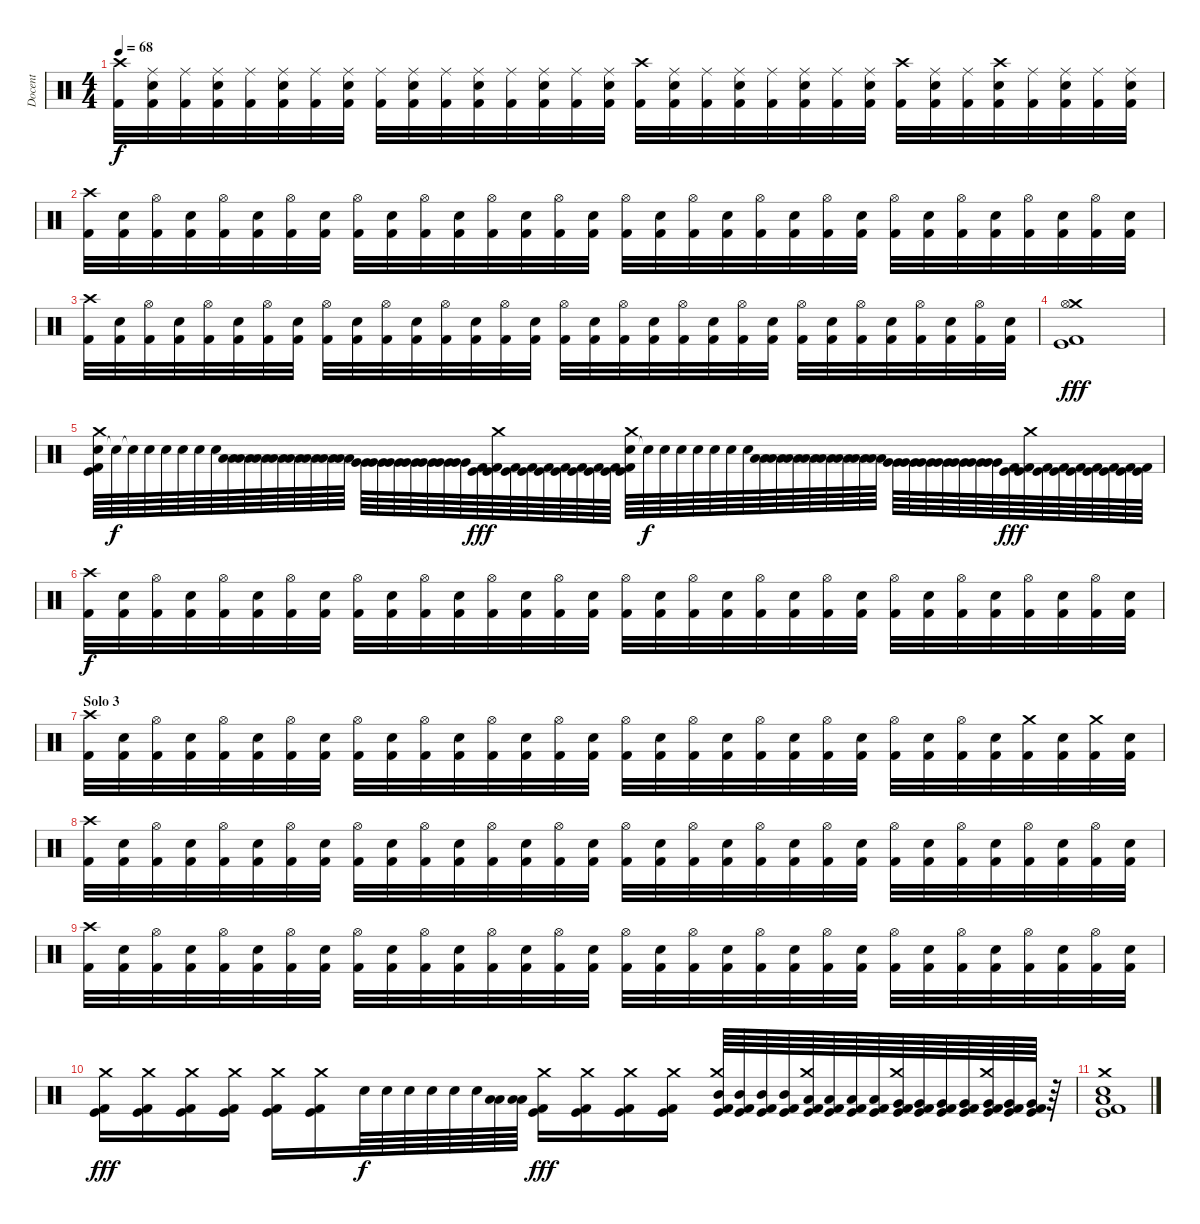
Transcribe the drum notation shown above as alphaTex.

\track ("Docent" "Docent") {instrument percussion}
\staff {score}
\articulation defaults
\ts (4 4)
\tempo 68
\clef neutral
\ks c
("Crash high (hit)" "Kick (hit) 2").32{dy f} ("Ride (middle)" "Electric Snare (hit)" "Kick (hit) 2").32 ("Ride (middle)" "Kick (hit) 2").32 ("Ride (middle)" "Electric Snare (hit)" "Kick (hit) 2").32 ("Ride (middle)" "Kick (hit) 2").32 ("Ride (middle)" "Electric Snare (hit)" "Kick (hit) 2").32 ("Ride (middle)" "Kick (hit) 2").32 ("Ride (middle)" "Electric Snare (hit)" "Kick (hit) 2").32 ("Ride (middle)" "Kick (hit) 2").32 ("Ride (middle)" "Electric Snare (hit)" "Kick (hit) 2").32 ("Ride (middle)" "Kick (hit) 2").32 ("Ride (middle)" "Electric Snare (hit)" "Kick (hit) 2").32 ("Ride (middle)" "Kick (hit) 2").32 ("Ride (middle)" "Electric Snare (hit)" "Kick (hit) 2").32 ("Ride (middle)" "Kick (hit) 2").32 ("Ride (middle)" "Electric Snare (hit)" "Kick (hit) 2").32 ("Crash high (hit)" "Kick (hit) 2").32 ("Ride (middle)" "Electric Snare (hit)" "Kick (hit) 2").32 ("Ride (middle)" "Kick (hit) 2").32 ("Ride (middle)" "Electric Snare (hit)" "Kick (hit) 2").32 ("Ride (middle)" "Kick (hit) 2").32 ("Ride (middle)" "Electric Snare (hit)" "Kick (hit) 2").32 ("Ride (middle)" "Kick (hit) 2").32 ("Ride (middle)" "Electric Snare (hit)" "Kick (hit) 2").32 ("Crash high (hit)" "Kick (hit) 2").32 ("Ride (middle)" "Electric Snare (hit)" "Kick (hit) 2").32 ("Ride (middle)" "Kick (hit) 2").32 ("Crash high (hit)" "Electric Snare (hit)" "Kick (hit) 2").32 ("Ride (middle)" "Kick (hit) 2").32 ("Ride (middle)" "Electric Snare (hit)" "Kick (hit) 2").32 ("Ride (middle)" "Kick (hit) 2").32 ("Ride (middle)" "Electric Snare (hit)" "Kick (hit) 2").32 |
("Crash high (hit)" "Kick (hit) 2").32 ("Electric Snare (hit)" "Kick (hit) 2").32 ("Hi-Hat (open)" "Kick (hit) 2").32 ("Electric Snare (hit)" "Kick (hit) 2").32 ("Hi-Hat (open)" "Kick (hit) 2").32 ("Electric Snare (hit)" "Kick (hit) 2").32 ("Hi-Hat (open)" "Kick (hit) 2").32 ("Electric Snare (hit)" "Kick (hit) 2").32 ("Hi-Hat (open)" "Kick (hit) 2").32 ("Electric Snare (hit)" "Kick (hit) 2").32 ("Hi-Hat (open)" "Kick (hit) 2").32 ("Electric Snare (hit)" "Kick (hit) 2").32 ("Hi-Hat (open)" "Kick (hit) 2").32 ("Electric Snare (hit)" "Kick (hit) 2").32 ("Hi-Hat (open)" "Kick (hit) 2").32 ("Electric Snare (hit)" "Kick (hit) 2").32 ("Hi-Hat (open)" "Kick (hit) 2").32 ("Electric Snare (hit)" "Kick (hit) 2").32 ("Hi-Hat (open)" "Kick (hit) 2").32 ("Electric Snare (hit)" "Kick (hit) 2").32 ("Hi-Hat (open)" "Kick (hit) 2").32 ("Electric Snare (hit)" "Kick (hit) 2").32 ("Hi-Hat (open)" "Kick (hit) 2").32 ("Electric Snare (hit)" "Kick (hit) 2").32 ("Hi-Hat (open)" "Kick (hit) 2").32 ("Electric Snare (hit)" "Kick (hit) 2").32 ("Hi-Hat (open)" "Kick (hit) 2").32 ("Electric Snare (hit)" "Kick (hit) 2").32 ("Hi-Hat (open)" "Kick (hit) 2").32 ("Electric Snare (hit)" "Kick (hit) 2").32 ("Hi-Hat (open)" "Kick (hit) 2").32 ("Electric Snare (hit)" "Kick (hit) 2").32 |
("Crash high (hit)" "Kick (hit) 2").32 ("Electric Snare (hit)" "Kick (hit) 2").32 ("Hi-Hat (open)" "Kick (hit) 2").32 ("Electric Snare (hit)" "Kick (hit) 2").32 ("Hi-Hat (open)" "Kick (hit) 2").32 ("Electric Snare (hit)" "Kick (hit) 2").32 ("Hi-Hat (open)" "Kick (hit) 2").32 ("Electric Snare (hit)" "Kick (hit) 2").32 ("Hi-Hat (open)" "Kick (hit) 2").32 ("Electric Snare (hit)" "Kick (hit) 2").32 ("Hi-Hat (open)" "Kick (hit) 2").32 ("Electric Snare (hit)" "Kick (hit) 2").32 ("Hi-Hat (open)" "Kick (hit) 2").32 ("Electric Snare (hit)" "Kick (hit) 2").32 ("Hi-Hat (open)" "Kick (hit) 2").32 ("Electric Snare (hit)" "Kick (hit) 2").32 ("Hi-Hat (open)" "Kick (hit) 2").32 ("Electric Snare (hit)" "Kick (hit) 2").32 ("Hi-Hat (open)" "Kick (hit) 2").32 ("Electric Snare (hit)" "Kick (hit) 2").32 ("Hi-Hat (open)" "Kick (hit) 2").32 ("Electric Snare (hit)" "Kick (hit) 2").32 ("Hi-Hat (open)" "Kick (hit) 2").32 ("Electric Snare (hit)" "Kick (hit) 2").32 ("Hi-Hat (open)" "Kick (hit) 2").32 ("Electric Snare (hit)" "Kick (hit) 2").32 ("Hi-Hat (open)" "Kick (hit) 2").32 ("Electric Snare (hit)" "Kick (hit) 2").32 ("Hi-Hat (open)" "Kick (hit) 2").32 ("Electric Snare (hit)" "Kick (hit) 2").32 ("Hi-Hat (open)" "Kick (hit) 2").32 ("Electric Snare (hit)" "Kick (hit) 2").32 |
("Kick (hit) 2" "Kick (hit)" "Crash medium (hit)" "Hi-Hat (open)").1{dy fff} |
("Electric Snare (hit)" "Kick (hit)" "Kick (hit) 2" "Crash medium (hit)").64 "Electric Snare (hit)"{t}.64{dy f} "Electric Snare (hit)"{t}.64 "Electric Snare (hit)".64 "Electric Snare (hit)".64 "Electric Snare (hit)".64 "Electric Snare (hit)".64 "Electric Snare (hit)".64 ("Low Tom (hit)" "Low Tom (hit)").64 ("Low Tom (hit)" "Low Tom (hit)").64 ("Low Tom (hit)" "Low Tom (hit)").64 ("Low Tom (hit)" "Low Tom (hit)").64 ("Low Tom (hit)" "Low Tom (hit)").64 ("Low Tom (hit)" "Low Tom (hit)").64 ("Low Tom (hit)" "Low Tom (hit)").64 ("Low Tom (hit)" "Low Tom (hit)").64 ("Very Low Tom (hit)" "Very Low Tom (hit)").64 ("Very Low Tom (hit)" "Very Low Tom (hit)").64 ("Very Low Tom (hit)" "Very Low Tom (hit)").64 ("Very Low Tom (hit)" "Very Low Tom (hit)").64 ("Very Low Tom (hit)" "Very Low Tom (hit)").64 ("Very Low Tom (hit)" "Very Low Tom (hit)").64 ("Very Low Tom (hit)" "Very Low Tom (hit)").64 ("Kick (hit) 2" "Kick (hit)").64{dy fff} ("Kick (hit) 2" "Kick (hit)" "Crash medium (hit)").64 ("Kick (hit) 2" "Kick (hit)").64 ("Kick (hit) 2" "Kick (hit)").64 ("Kick (hit) 2" "Kick (hit)").64 ("Kick (hit) 2" "Kick (hit)").64 ("Kick (hit) 2" "Kick (hit)").64 ("Kick (hit) 2" "Kick (hit)").64 ("Kick (hit) 2" "Kick (hit)").64 ("Electric Snare (hit)" "Kick (hit)" "Kick (hit) 2" "Crash medium (hit)").64 "Electric Snare (hit)"{t}.64{dy f} "Electric Snare (hit)".64 "Electric Snare (hit)".64 "Electric Snare (hit)".64 "Electric Snare (hit)".64 "Electric Snare (hit)".64 "Electric Snare (hit)".64 ("Low Tom (hit)" "Low Tom (hit)").64 ("Low Tom (hit)" "Low Tom (hit)").64 ("Low Tom (hit)" "Low Tom (hit)").64 ("Low Tom (hit)" "Low Tom (hit)").64 ("Low Tom (hit)" "Low Tom (hit)").64 ("Low Tom (hit)" "Low Tom (hit)").64 ("Low Tom (hit)" "Low Tom (hit)").64 ("Low Tom (hit)" "Low Tom (hit)").64 ("Very Low Tom (hit)" "Very Low Tom (hit)").64 ("Very Low Tom (hit)" "Very Low Tom (hit)").64 ("Very Low Tom (hit)" "Very Low Tom (hit)").64 ("Very Low Tom (hit)" "Very Low Tom (hit)").64 ("Very Low Tom (hit)" "Very Low Tom (hit)").64 ("Very Low Tom (hit)" "Very Low Tom (hit)").64 ("Very Low Tom (hit)" "Very Low Tom (hit)").64 ("Kick (hit) 2" "Kick (hit)").64{dy fff} ("Kick (hit) 2" "Kick (hit)" "Crash medium (hit)").64 ("Kick (hit) 2" "Kick (hit)").64 ("Kick (hit) 2" "Kick (hit)").64 ("Kick (hit) 2" "Kick (hit)").64 ("Kick (hit) 2" "Kick (hit)").64 ("Kick (hit) 2" "Kick (hit)").64 ("Kick (hit) 2" "Kick (hit)").64 ("Kick (hit) 2" "Kick (hit)").64 |
("Crash high (hit)" "Kick (hit) 2").32{dy f} ("Electric Snare (hit)" "Kick (hit) 2").32 ("Hi-Hat (open)" "Kick (hit) 2").32 ("Electric Snare (hit)" "Kick (hit) 2").32 ("Hi-Hat (open)" "Kick (hit) 2").32 ("Electric Snare (hit)" "Kick (hit) 2").32 ("Hi-Hat (open)" "Kick (hit) 2").32 ("Electric Snare (hit)" "Kick (hit) 2").32 ("Hi-Hat (open)" "Kick (hit) 2").32 ("Electric Snare (hit)" "Kick (hit) 2").32 ("Hi-Hat (open)" "Kick (hit) 2").32 ("Electric Snare (hit)" "Kick (hit) 2").32 ("Hi-Hat (open)" "Kick (hit) 2").32 ("Electric Snare (hit)" "Kick (hit) 2").32 ("Hi-Hat (open)" "Kick (hit) 2").32 ("Electric Snare (hit)" "Kick (hit) 2").32 ("Hi-Hat (open)" "Kick (hit) 2").32 ("Electric Snare (hit)" "Kick (hit) 2").32 ("Hi-Hat (open)" "Kick (hit) 2").32 ("Electric Snare (hit)" "Kick (hit) 2").32 ("Hi-Hat (open)" "Kick (hit) 2").32 ("Electric Snare (hit)" "Kick (hit) 2").32 ("Hi-Hat (open)" "Kick (hit) 2").32 ("Electric Snare (hit)" "Kick (hit) 2").32 ("Hi-Hat (open)" "Kick (hit) 2").32 ("Electric Snare (hit)" "Kick (hit) 2").32 ("Hi-Hat (open)" "Kick (hit) 2").32 ("Electric Snare (hit)" "Kick (hit) 2").32 ("Hi-Hat (open)" "Kick (hit) 2").32 ("Electric Snare (hit)" "Kick (hit) 2").32 ("Hi-Hat (open)" "Kick (hit) 2").32 ("Electric Snare (hit)" "Kick (hit) 2").32 |
\section ("" "Solo 3")
("Crash high (hit)" "Kick (hit) 2").32 ("Electric Snare (hit)" "Kick (hit) 2").32 ("Hi-Hat (open)" "Kick (hit) 2").32 ("Electric Snare (hit)" "Kick (hit) 2").32 ("Hi-Hat (open)" "Kick (hit) 2").32 ("Electric Snare (hit)" "Kick (hit) 2").32 ("Hi-Hat (open)" "Kick (hit) 2").32 ("Electric Snare (hit)" "Kick (hit) 2").32 ("Hi-Hat (open)" "Kick (hit) 2").32 ("Electric Snare (hit)" "Kick (hit) 2").32 ("Hi-Hat (open)" "Kick (hit) 2").32 ("Electric Snare (hit)" "Kick (hit) 2").32 ("Hi-Hat (open)" "Kick (hit) 2").32 ("Electric Snare (hit)" "Kick (hit) 2").32 ("Hi-Hat (open)" "Kick (hit) 2").32 ("Electric Snare (hit)" "Kick (hit) 2").32 ("Hi-Hat (open)" "Kick (hit) 2").32 ("Electric Snare (hit)" "Kick (hit) 2").32 ("Hi-Hat (open)" "Kick (hit) 2").32 ("Electric Snare (hit)" "Kick (hit) 2").32 ("Hi-Hat (open)" "Kick (hit) 2").32 ("Electric Snare (hit)" "Kick (hit) 2").32 ("Hi-Hat (open)" "Kick (hit) 2").32 ("Electric Snare (hit)" "Kick (hit) 2").32 ("Hi-Hat (open)" "Kick (hit) 2").32 ("Electric Snare (hit)" "Kick (hit) 2").32 ("Hi-Hat (open)" "Kick (hit) 2").32 ("Electric Snare (hit)" "Kick (hit) 2").32 ("Crash medium (hit)" "Kick (hit) 2").32 ("Electric Snare (hit)" "Kick (hit) 2").32 ("Crash medium (hit)" "Kick (hit) 2").32 ("Electric Snare (hit)" "Kick (hit) 2").32 |
("Crash high (hit)" "Kick (hit) 2").32 ("Electric Snare (hit)" "Kick (hit) 2").32 ("Hi-Hat (open)" "Kick (hit) 2").32 ("Electric Snare (hit)" "Kick (hit) 2").32 ("Hi-Hat (open)" "Kick (hit) 2").32 ("Electric Snare (hit)" "Kick (hit) 2").32 ("Hi-Hat (open)" "Kick (hit) 2").32 ("Electric Snare (hit)" "Kick (hit) 2").32 ("Hi-Hat (open)" "Kick (hit) 2").32 ("Electric Snare (hit)" "Kick (hit) 2").32 ("Hi-Hat (open)" "Kick (hit) 2").32 ("Electric Snare (hit)" "Kick (hit) 2").32 ("Hi-Hat (open)" "Kick (hit) 2").32 ("Electric Snare (hit)" "Kick (hit) 2").32 ("Hi-Hat (open)" "Kick (hit) 2").32 ("Electric Snare (hit)" "Kick (hit) 2").32 ("Hi-Hat (open)" "Kick (hit) 2").32 ("Electric Snare (hit)" "Kick (hit) 2").32 ("Hi-Hat (open)" "Kick (hit) 2").32 ("Electric Snare (hit)" "Kick (hit) 2").32 ("Hi-Hat (open)" "Kick (hit) 2").32 ("Electric Snare (hit)" "Kick (hit) 2").32 ("Hi-Hat (open)" "Kick (hit) 2").32 ("Electric Snare (hit)" "Kick (hit) 2").32 ("Hi-Hat (open)" "Kick (hit) 2").32 ("Electric Snare (hit)" "Kick (hit) 2").32 ("Hi-Hat (open)" "Kick (hit) 2").32 ("Electric Snare (hit)" "Kick (hit) 2").32 ("Hi-Hat (open)" "Kick (hit) 2").32 ("Electric Snare (hit)" "Kick (hit) 2").32 ("Hi-Hat (open)" "Kick (hit) 2").32 ("Electric Snare (hit)" "Kick (hit) 2").32 |
("Crash high (hit)" "Kick (hit) 2").32 ("Electric Snare (hit)" "Kick (hit) 2").32 ("Hi-Hat (open)" "Kick (hit) 2").32 ("Electric Snare (hit)" "Kick (hit) 2").32 ("Hi-Hat (open)" "Kick (hit) 2").32 ("Electric Snare (hit)" "Kick (hit) 2").32 ("Hi-Hat (open)" "Kick (hit) 2").32 ("Electric Snare (hit)" "Kick (hit) 2").32 ("Hi-Hat (open)" "Kick (hit) 2").32 ("Electric Snare (hit)" "Kick (hit) 2").32 ("Hi-Hat (open)" "Kick (hit) 2").32 ("Electric Snare (hit)" "Kick (hit) 2").32 ("Hi-Hat (open)" "Kick (hit) 2").32 ("Electric Snare (hit)" "Kick (hit) 2").32 ("Hi-Hat (open)" "Kick (hit) 2").32 ("Electric Snare (hit)" "Kick (hit) 2").32 ("Hi-Hat (open)" "Kick (hit) 2").32 ("Electric Snare (hit)" "Kick (hit) 2").32 ("Hi-Hat (open)" "Kick (hit) 2").32 ("Electric Snare (hit)" "Kick (hit) 2").32 ("Hi-Hat (open)" "Kick (hit) 2").32 ("Electric Snare (hit)" "Kick (hit) 2").32 ("Hi-Hat (open)" "Kick (hit) 2").32 ("Electric Snare (hit)" "Kick (hit) 2").32 ("Hi-Hat (open)" "Kick (hit) 2").32 ("Electric Snare (hit)" "Kick (hit) 2").32 ("Hi-Hat (open)" "Kick (hit) 2").32 ("Electric Snare (hit)" "Kick (hit) 2").32 ("Hi-Hat (open)" "Kick (hit) 2").32 ("Electric Snare (hit)" "Kick (hit) 2").32 ("Hi-Hat (open)" "Kick (hit) 2").32 ("Electric Snare (hit)" "Kick (hit) 2").32 |
("Crash medium (hit)" "Kick (hit)" "Kick (hit) 2").16{dy fff} ("Crash medium (hit)" "Kick (hit)" "Kick (hit) 2").16 ("Crash medium (hit)" "Kick (hit)" "Kick (hit) 2").16 ("Crash medium (hit)" "Kick (hit)" "Kick (hit) 2").16 ("Crash medium (hit)" "Kick (hit)" "Kick (hit) 2").16 ("Crash medium (hit)" "Kick (hit)" "Kick (hit) 2").16 "Electric Snare (hit)".64{dy f} "Electric Snare (hit)".64 "Electric Snare (hit)".64 "Electric Snare (hit)".64 "Electric Snare (hit)".64 "Electric Snare (hit)".64 ("Low Tom (hit)" "Low Tom (hit)").64 ("Low Tom (hit)" "Low Tom (hit)").64 ("Crash medium (hit)" "Kick (hit)" "Kick (hit) 2").16{dy fff} ("Crash medium (hit)" "Kick (hit)" "Kick (hit) 2").16 ("Crash medium (hit)" "Kick (hit)" "Kick (hit) 2").16 ("Crash medium (hit)" "Kick (hit)" "Kick (hit) 2").16 ("Crash medium (hit)" "Mid Tom (hit)" "Kick (hit)" "Kick (hit) 2").64 ("Mid Tom (hit)" "Kick (hit)" "Kick (hit) 2").64 ("Mid Tom (hit)" "Kick (hit)" "Kick (hit) 2").64 ("Mid Tom (hit)" "Kick (hit)" "Kick (hit) 2").64 ("Crash medium (hit)" "Low Tom (hit)" "Kick (hit)" "Kick (hit) 2").64 ("Low Tom (hit)" "Kick (hit)" "Kick (hit) 2").64 ("Low Tom (hit)" "Kick (hit)" "Kick (hit) 2").64 ("Low Tom (hit)" "Kick (hit)" "Kick (hit) 2").64 ("Crash medium (hit)" "Very Low Tom (hit)" "Kick (hit)" "Kick (hit) 2").64 ("Very Low Tom (hit)" "Kick (hit)" "Kick (hit) 2").64 ("Very Low Tom (hit)" "Kick (hit)" "Kick (hit) 2").64 ("Very Low Tom (hit)" "Kick (hit)" "Kick (hit) 2").64 ("Crash medium (hit)" "Very Low Tom (hit)" "Kick (hit)" "Kick (hit) 2").64 ("Very Low Tom (hit)" "Kick (hit)" "Kick (hit) 2").64 ("Very Low Tom (hit)" "Kick (hit)" "Kick (hit) 2").64 r.64 |
("Crash medium (hit)" "Electric Snare (hit)" "Low Tom (hit)" "Kick (hit)" "Kick (hit) 2").1
